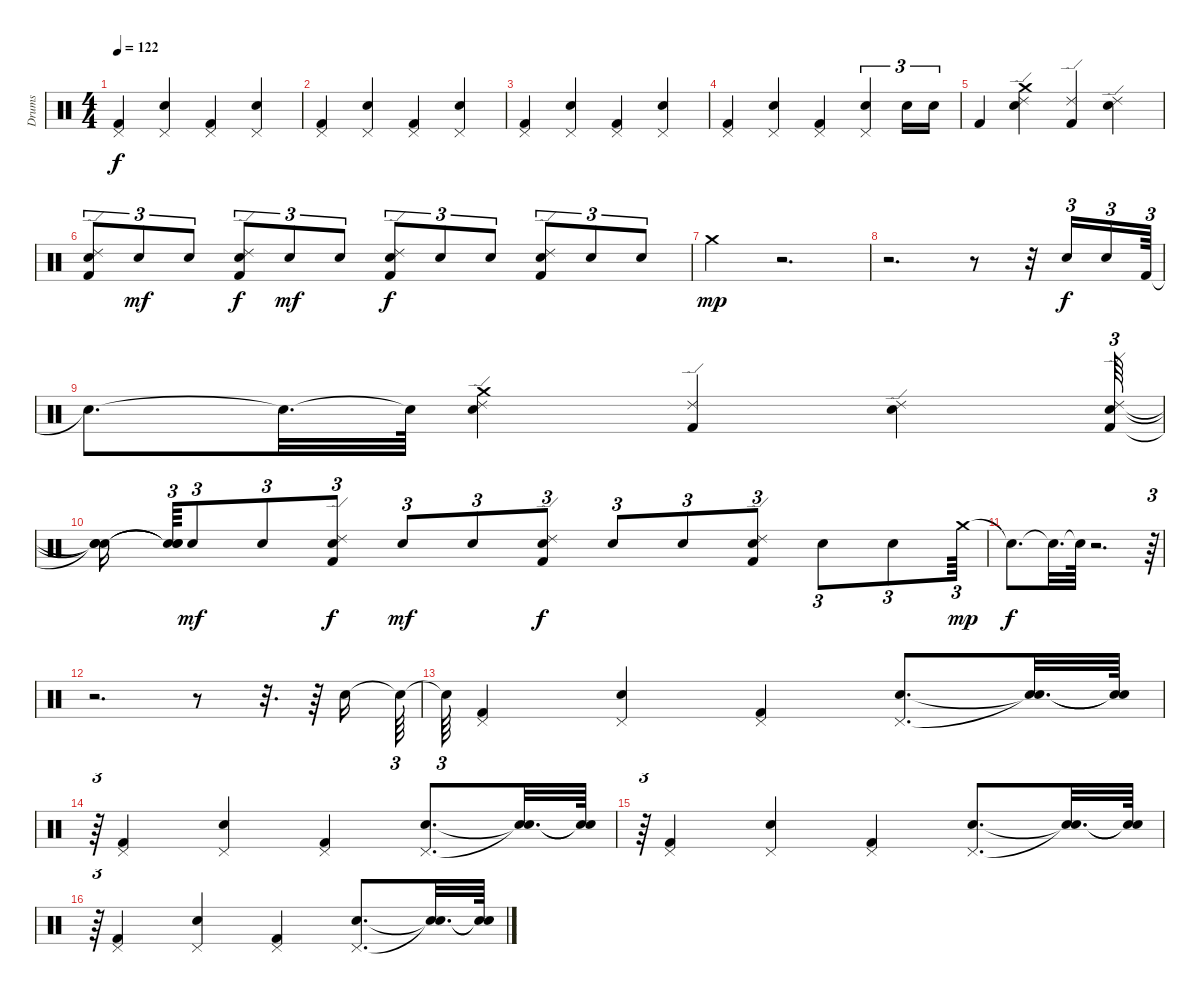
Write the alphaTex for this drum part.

\track ("Drums" "Drums") {instrument percussion}
\staff {score}
\articulation defaults
\ts (4 4)
\tempo 122
\clef neutral
\ks c
("Pedal Hi-Hat (hit)" "Kick (hit) 2").4{dy f} ("Pedal Hi-Hat (hit)" "Snare (hit) 2").4 ("Pedal Hi-Hat (hit)" "Kick (hit) 2").4 ("Pedal Hi-Hat (hit)" "Snare (hit) 2").4 |
("Pedal Hi-Hat (hit)" "Kick (hit) 2").4 ("Pedal Hi-Hat (hit)" "Snare (hit) 2").4 ("Pedal Hi-Hat (hit)" "Kick (hit) 2").4 ("Pedal Hi-Hat (hit)" "Snare (hit) 2").4 |
("Pedal Hi-Hat (hit)" "Kick (hit) 2").4 ("Pedal Hi-Hat (hit)" "Snare (hit) 2").4 ("Pedal Hi-Hat (hit)" "Kick (hit) 2").4 ("Pedal Hi-Hat (hit)" "Snare (hit) 2").4 |
("Pedal Hi-Hat (hit)" "Kick (hit) 2").4 ("Pedal Hi-Hat (hit)" "Snare (hit) 2").4 ("Pedal Hi-Hat (hit)" "Kick (hit) 2").4 ("Pedal Hi-Hat (hit)" "Snare (hit) 2").4{tu (3 2)} "Snare (hit) 2".16{tu (3 2)} "Snare (hit) 2".16{tu (3 2)} |
"Kick (hit) 2".4 ("Snare (hit) 2" "Ride (edge) 2" "Crash medium (hit)").4 ("Kick (hit) 2" "Ride (edge) 2").4 ("Snare (hit) 2" "Ride (edge) 2").4 |
("Snare (hit) 2" "Kick (hit) 2" "Ride (edge) 2").8{tu (3 2)} "Snare (hit) 2".8{tu (3 2) dy mf} "Snare (hit) 2".8{tu (3 2)} ("Snare (hit) 2" "Kick (hit) 2" "Ride (edge) 2").8{tu (3 2) dy f} "Snare (hit) 2".8{tu (3 2) dy mf} "Snare (hit) 2".8{tu (3 2)} ("Snare (hit) 2" "Kick (hit) 2" "Ride (edge) 2").8{tu (3 2) dy f} "Snare (hit) 2".8{tu (3 2)} "Snare (hit) 2".8{tu (3 2)} ("Snare (hit) 2" "Kick (hit) 2" "Ride (edge) 2").8{tu (3 2)} "Snare (hit) 2".8{tu (3 2)} "Snare (hit) 2".8{tu (3 2)} |
"Crash medium (hit)".4{dy mp} r.2{d} |
r.2{d} r.8 r.32 "Snare (hit) 2".16{tu (3 2) dy f} "Snare (hit) 2".16{tu (3 2)} "Kick (hit) 2".64{tu (3 2)} |
"Snare (hit)"{t}.8{d} "Snare (hit)"{t}.32{d} "Snare (hit)"{t}.64 ("Ride (edge) 2" "Crash medium (hit)" "Snare (hit) 2").4 ("Ride (edge) 2" "Kick (hit) 2").4 ("Ride (edge) 2" "Snare (hit) 2").4 ("Snare (hit) 2" "Ride (edge) 2" "Kick (hit) 2").64{tu (3 2)} |
("Snare (hit)"{t} "Snare (hit)"{t} "Snare (hit)"{t}).16 ("Snare (hit)"{t} "Snare (hit)"{t} "Snare (hit)"{t}).64{tu (3 2)} "Snare (hit) 2".8{tu (3 2) dy mf} "Snare (hit) 2".8{tu (3 2)} ("Snare (hit) 2" "Ride (edge) 2" "Kick (hit) 2").8{tu (3 2) dy f} "Snare (hit) 2".8{tu (3 2) dy mf} "Snare (hit) 2".8{tu (3 2)} ("Snare (hit) 2" "Ride (edge) 2" "Kick (hit) 2").8{tu (3 2) dy f} "Snare (hit) 2".8{tu (3 2)} "Snare (hit) 2".8{tu (3 2)} ("Snare (hit) 2" "Ride (edge) 2" "Kick (hit) 2").8{tu (3 2)} "Snare (hit) 2".8{tu (3 2)} "Snare (hit) 2".8{tu (3 2)} "Crash medium (hit)".64{tu (3 2) dy mp} |
"Snare (hit)"{t}.8{d dy f} "Snare (hit)"{t}.32{d} "Snare (hit)"{t}.64 r.2{d} r.64{tu (3 2)} |
r.2{d} r.8 r.32{d} r.64 "Snare (hit) 2".16 "Snare (hit)"{t}.64{tu (3 2)} |
"Snare (hit)"{t}.64{tu (3 2)} ("Kick (hit) 2" "Pedal Hi-Hat (hit)").4 ("Snare (hit) 2" "Pedal Hi-Hat (hit)").4 ("Kick (hit) 2" "Pedal Hi-Hat (hit)").4 ("Snare (hit) 2" "Pedal Hi-Hat (hit)").8{d} ("Snare (hit)"{t} "Snare (hit)"{t}).32{d} ("Snare (hit)"{t} "Snare (hit)"{t}).64 |
r.64{tu (3 2)} ("Kick (hit) 2" "Pedal Hi-Hat (hit)").4 ("Snare (hit) 2" "Pedal Hi-Hat (hit)").4 ("Kick (hit) 2" "Pedal Hi-Hat (hit)").4 ("Snare (hit) 2" "Pedal Hi-Hat (hit)").8{d} ("Snare (hit)"{t} "Snare (hit)"{t}).32{d} ("Snare (hit)"{t} "Snare (hit)"{t}).64 |
r.64{tu (3 2)} ("Kick (hit) 2" "Pedal Hi-Hat (hit)").4 ("Snare (hit) 2" "Pedal Hi-Hat (hit)").4 ("Kick (hit) 2" "Pedal Hi-Hat (hit)").4 ("Snare (hit) 2" "Pedal Hi-Hat (hit)").8{d} ("Snare (hit)"{t} "Snare (hit)"{t}).32{d} ("Snare (hit)"{t} "Snare (hit)"{t}).64 |
r.64{tu (3 2)} ("Kick (hit) 2" "Pedal Hi-Hat (hit)").4 ("Snare (hit) 2" "Pedal Hi-Hat (hit)").4 ("Kick (hit) 2" "Pedal Hi-Hat (hit)").4 ("Snare (hit) 2" "Pedal Hi-Hat (hit)").8{d} ("Snare (hit)"{t} "Snare (hit)"{t}).32{d} ("Snare (hit)"{t} "Snare (hit)"{t}).64
